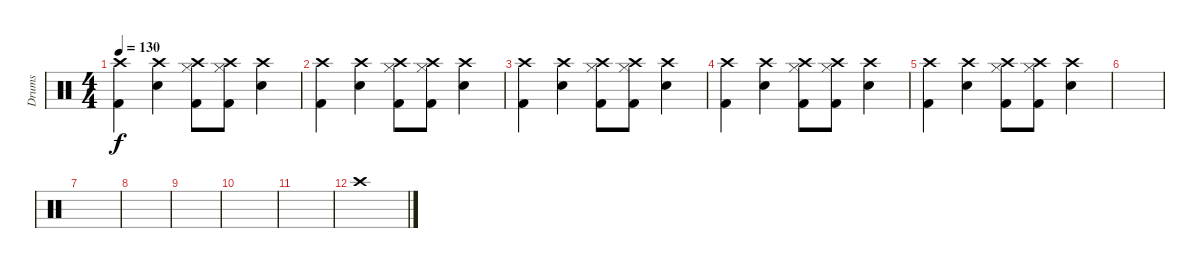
\track ("Drums" "Drums") {instrument percussion}
\staff {score}
\articulation defaults
\ts (4 4)
\tempo 130
\clef neutral
\ks c
("Crash high (hit)" "Kick (hit) 2").4{dy f} ("Electric Snare (hit)" "Crash high (hit)").4 ("Kick (hit) 2" "Hi-Hat (closed)" "Crash high (hit)").8 ("Kick (hit) 2" "Hi-Hat (closed)" "Crash high (hit)").8 ("Electric Snare (hit)" "Crash high (hit)").4 |
("Crash high (hit)" "Kick (hit) 2").4 ("Electric Snare (hit)" "Crash high (hit)").4 ("Kick (hit) 2" "Hi-Hat (closed)" "Crash high (hit)").8 ("Kick (hit) 2" "Hi-Hat (closed)" "Crash high (hit)").8 ("Electric Snare (hit)" "Crash high (hit)").4 |
("Crash high (hit)" "Kick (hit) 2").4 ("Electric Snare (hit)" "Crash high (hit)").4 ("Kick (hit) 2" "Hi-Hat (closed)" "Crash high (hit)").8 ("Kick (hit) 2" "Hi-Hat (closed)" "Crash high (hit)").8 ("Electric Snare (hit)" "Crash high (hit)").4 |
("Crash high (hit)" "Kick (hit) 2").4 ("Electric Snare (hit)" "Crash high (hit)").4 ("Kick (hit) 2" "Hi-Hat (closed)" "Crash high (hit)").8 ("Kick (hit) 2" "Hi-Hat (closed)" "Crash high (hit)").8 ("Electric Snare (hit)" "Crash high (hit)").4 |
("Crash high (hit)" "Kick (hit) 2").4 ("Electric Snare (hit)" "Crash high (hit)").4 ("Kick (hit) 2" "Hi-Hat (closed)" "Crash high (hit)").8 ("Kick (hit) 2" "Hi-Hat (closed)" "Crash high (hit)").8 ("Electric Snare (hit)" "Crash high (hit)").4 |
|
|
|
|
|
|
"Crash high (hit)".1
